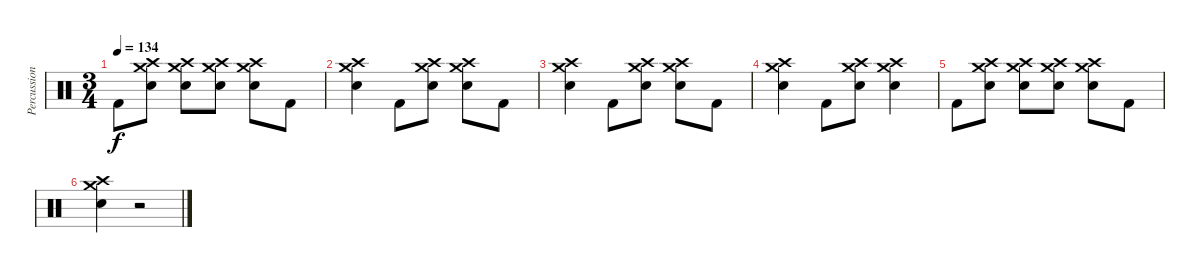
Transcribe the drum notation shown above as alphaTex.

\track ("Percussion" "Percussion") {instrument percussion}
\staff {score}
\articulation defaults
\ts (3 4)
\tempo 134
\clef neutral
\ks c "Kick (hit) 2".8{dy f}
("Crash medium (hit)" "Crash high (hit)" "Snare (hit) 2").8 ("Crash medium (hit)" "Crash high (hit)" "Snare (hit) 2").8 ("Crash medium (hit)" "Crash high (hit)" "Snare (hit) 2").8 ("Crash medium (hit)" "Crash high (hit)" "Snare (hit) 2").8 "Kick (hit) 2".8 |
("Crash medium (hit)" "Crash high (hit)" "Snare (hit) 2").4 "Kick (hit) 2".8 ("Crash medium (hit)" "Crash high (hit)" "Snare (hit) 2").8 ("Crash medium (hit)" "Crash high (hit)" "Snare (hit) 2").8 "Kick (hit) 2".8 |
("Crash medium (hit)" "Crash high (hit)" "Snare (hit) 2").4 "Kick (hit) 2".8 ("Crash medium (hit)" "Crash high (hit)" "Snare (hit) 2").8 ("Crash medium (hit)" "Crash high (hit)" "Snare (hit) 2").8 "Kick (hit) 2".8 |
("Crash medium (hit)" "Crash high (hit)" "Snare (hit) 2").4 "Kick (hit) 2".8 ("Crash medium (hit)" "Crash high (hit)" "Snare (hit) 2").8 ("Crash medium (hit)" "Crash high (hit)" "Snare (hit) 2").4 |
"Kick (hit) 2".8 ("Crash medium (hit)" "Crash high (hit)" "Snare (hit) 2").8 ("Crash medium (hit)" "Crash high (hit)" "Snare (hit) 2").8 ("Crash medium (hit)" "Crash high (hit)" "Snare (hit) 2").8 ("Crash medium (hit)" "Crash high (hit)" "Snare (hit) 2").8 "Kick (hit) 2".8 |
("Crash medium (hit)" "Crash high (hit)" "Snare (hit) 2").4 r.2{volume 0}
